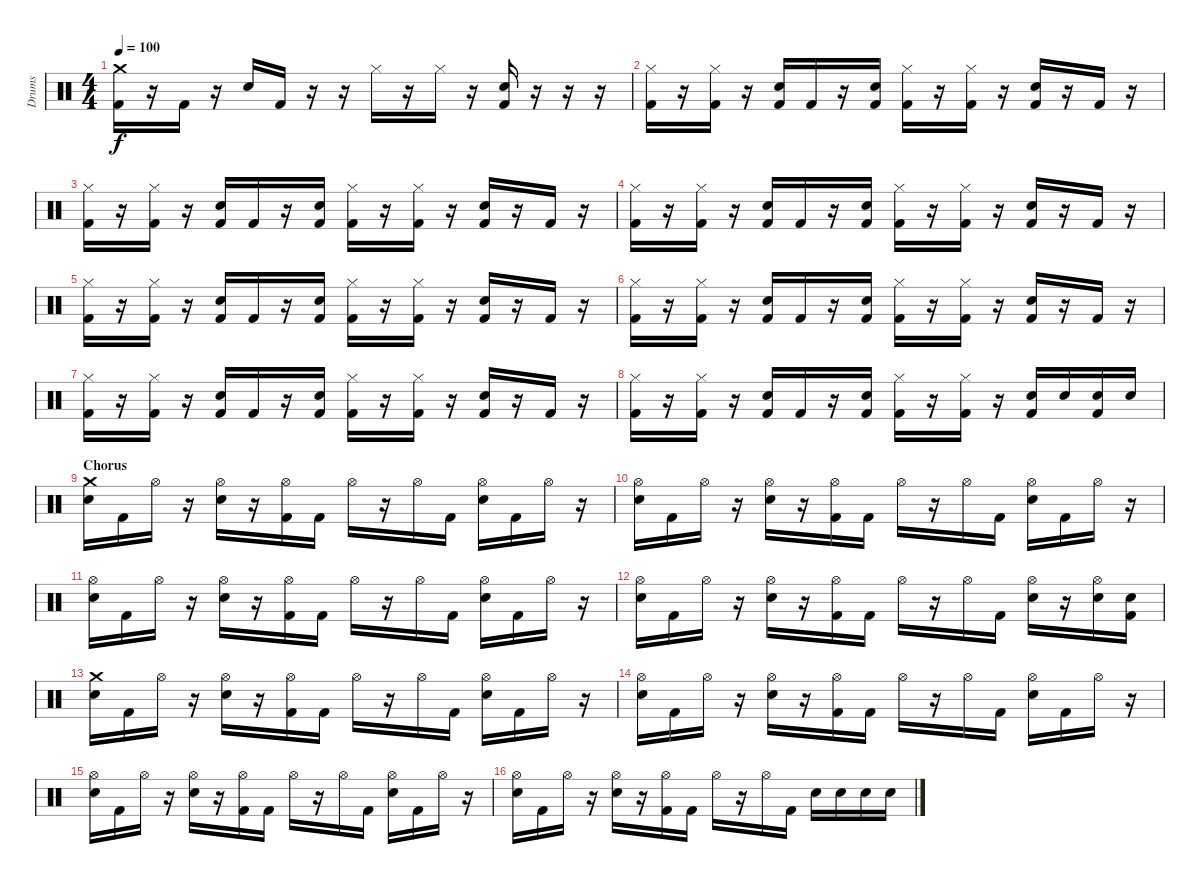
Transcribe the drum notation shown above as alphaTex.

\track ("Drums" "Drums") {instrument percussion}
\staff {score}
\articulation defaults
\ts (4 4)
\tempo 100
\clef neutral
\ks c
("Crash medium (hit)" "Kick (hit) 2").16{dy f} r.16 "Kick (hit) 2".16 r.16 "Snare (hit) 2".16 "Kick (hit) 2".16 r.16 r.16 "Hi-Hat (closed)".16 r.16 "Hi-Hat (closed)".16 r.16 ("Snare (hit) 2" "Kick (hit) 2").16 r.16 r.16 r.16 |
("Hi-Hat (closed)" "Kick (hit) 2").16 r.16 ("Hi-Hat (closed)" "Kick (hit) 2").16 r.16 ("Snare (hit) 2" "Kick (hit) 2").16 "Kick (hit) 2".16 r.16 ("Snare (hit) 2" "Kick (hit) 2").16 ("Hi-Hat (closed)" "Kick (hit) 2").16 r.16 ("Hi-Hat (closed)" "Kick (hit) 2").16 r.16 ("Snare (hit) 2" "Kick (hit) 2").16 r.16 "Kick (hit) 2".16 r.16 |
("Hi-Hat (closed)" "Kick (hit) 2").16 r.16 ("Hi-Hat (closed)" "Kick (hit) 2").16 r.16 ("Snare (hit) 2" "Kick (hit) 2").16 "Kick (hit) 2".16 r.16 ("Snare (hit) 2" "Kick (hit) 2").16 ("Hi-Hat (closed)" "Kick (hit) 2").16 r.16 ("Hi-Hat (closed)" "Kick (hit) 2").16 r.16 ("Snare (hit) 2" "Kick (hit) 2").16 r.16 "Kick (hit) 2".16 r.16 |
("Hi-Hat (closed)" "Kick (hit) 2").16 r.16 ("Hi-Hat (closed)" "Kick (hit) 2").16 r.16 ("Snare (hit) 2" "Kick (hit) 2").16 "Kick (hit) 2".16 r.16 ("Snare (hit) 2" "Kick (hit) 2").16 ("Hi-Hat (closed)" "Kick (hit) 2").16 r.16 ("Hi-Hat (closed)" "Kick (hit) 2").16 r.16 ("Snare (hit) 2" "Kick (hit) 2").16 r.16 "Kick (hit) 2".16 r.16 |
("Hi-Hat (closed)" "Kick (hit) 2").16 r.16 ("Hi-Hat (closed)" "Kick (hit) 2").16 r.16 ("Snare (hit) 2" "Kick (hit) 2").16 "Kick (hit) 2".16 r.16 ("Snare (hit) 2" "Kick (hit) 2").16 ("Hi-Hat (closed)" "Kick (hit) 2").16 r.16 ("Hi-Hat (closed)" "Kick (hit) 2").16 r.16 ("Snare (hit) 2" "Kick (hit) 2").16 r.16 "Kick (hit) 2".16 r.16 |
("Hi-Hat (closed)" "Kick (hit) 2").16 r.16 ("Hi-Hat (closed)" "Kick (hit) 2").16 r.16 ("Snare (hit) 2" "Kick (hit) 2").16 "Kick (hit) 2".16 r.16 ("Snare (hit) 2" "Kick (hit) 2").16 ("Hi-Hat (closed)" "Kick (hit) 2").16 r.16 ("Hi-Hat (closed)" "Kick (hit) 2").16 r.16 ("Snare (hit) 2" "Kick (hit) 2").16 r.16 "Kick (hit) 2".16 r.16 |
("Hi-Hat (closed)" "Kick (hit) 2").16 r.16 ("Hi-Hat (closed)" "Kick (hit) 2").16 r.16 ("Snare (hit) 2" "Kick (hit) 2").16 "Kick (hit) 2".16 r.16 ("Snare (hit) 2" "Kick (hit) 2").16 ("Hi-Hat (closed)" "Kick (hit) 2").16 r.16 ("Hi-Hat (closed)" "Kick (hit) 2").16 r.16 ("Snare (hit) 2" "Kick (hit) 2").16 r.16 "Kick (hit) 2".16 r.16 |
("Hi-Hat (closed)" "Kick (hit) 2").16 r.16 ("Hi-Hat (closed)" "Kick (hit) 2").16 r.16 ("Snare (hit) 2" "Kick (hit) 2").16 "Kick (hit) 2".16 r.16 ("Snare (hit) 2" "Kick (hit) 2").16 ("Hi-Hat (closed)" "Kick (hit) 2").16 r.16 ("Hi-Hat (closed)" "Kick (hit) 2").16 r.16 ("Snare (hit) 2" "Kick (hit) 2").16 "Snare (hit) 2".16 ("Snare (hit) 2" "Kick (hit) 2").16 "Snare (hit) 2".16 |
\section ("" "Chorus")
("Crash medium (hit)" "Snare (hit) 2").16 "Kick (hit) 2".16 "Hi-Hat (open)".16 r.16 ("Hi-Hat (open)" "Snare (hit) 2").16 r.16 ("Hi-Hat (open)" "Kick (hit) 2").16 "Kick (hit) 2".16 "Hi-Hat (open)".16 r.16 "Hi-Hat (open)".16 "Kick (hit) 2".16 ("Hi-Hat (open)" "Snare (hit) 2").16 "Kick (hit) 2".16 "Hi-Hat (open)".16 r.16 |
("Hi-Hat (open)" "Snare (hit) 2").16 "Kick (hit) 2".16 "Hi-Hat (open)".16 r.16 ("Hi-Hat (open)" "Snare (hit) 2").16 r.16 ("Hi-Hat (open)" "Kick (hit) 2").16 "Kick (hit) 2".16 "Hi-Hat (open)".16 r.16 "Hi-Hat (open)".16 "Kick (hit) 2".16 ("Hi-Hat (open)" "Snare (hit) 2").16 "Kick (hit) 2".16 "Hi-Hat (open)".16 r.16 |
("Hi-Hat (open)" "Snare (hit) 2").16 "Kick (hit) 2".16 "Hi-Hat (open)".16 r.16 ("Hi-Hat (open)" "Snare (hit) 2").16 r.16 ("Hi-Hat (open)" "Kick (hit) 2").16 "Kick (hit) 2".16 "Hi-Hat (open)".16 r.16 "Hi-Hat (open)".16 "Kick (hit) 2".16 ("Hi-Hat (open)" "Snare (hit) 2").16 "Kick (hit) 2".16 "Hi-Hat (open)".16 r.16 |
("Hi-Hat (open)" "Snare (hit) 2").16 "Kick (hit) 2".16 "Hi-Hat (open)".16 r.16 ("Hi-Hat (open)" "Snare (hit) 2").16 r.16 ("Hi-Hat (open)" "Kick (hit) 2").16 "Kick (hit) 2".16 "Hi-Hat (open)".16 r.16 "Hi-Hat (open)".16 "Kick (hit) 2".16 ("Hi-Hat (open)" "Snare (hit) 2").16 r.16 ("Hi-Hat (open)" "Snare (hit) 2").16 ("Snare (hit) 2" "Kick (hit) 2").16 |
("Crash medium (hit)" "Snare (hit) 2").16 "Kick (hit) 2".16 "Hi-Hat (open)".16 r.16 ("Hi-Hat (open)" "Snare (hit) 2").16 r.16 ("Hi-Hat (open)" "Kick (hit) 2").16 "Kick (hit) 2".16 "Hi-Hat (open)".16 r.16 "Hi-Hat (open)".16 "Kick (hit) 2".16 ("Hi-Hat (open)" "Snare (hit) 2").16 "Kick (hit) 2".16 "Hi-Hat (open)".16 r.16 |
("Hi-Hat (open)" "Snare (hit) 2").16 "Kick (hit) 2".16 "Hi-Hat (open)".16 r.16 ("Hi-Hat (open)" "Snare (hit) 2").16 r.16 ("Hi-Hat (open)" "Kick (hit) 2").16 "Kick (hit) 2".16 "Hi-Hat (open)".16 r.16 "Hi-Hat (open)".16 "Kick (hit) 2".16 ("Hi-Hat (open)" "Snare (hit) 2").16 "Kick (hit) 2".16 "Hi-Hat (open)".16 r.16 |
("Hi-Hat (open)" "Snare (hit) 2").16 "Kick (hit) 2".16 "Hi-Hat (open)".16 r.16 ("Hi-Hat (open)" "Snare (hit) 2").16 r.16 ("Hi-Hat (open)" "Kick (hit) 2").16 "Kick (hit) 2".16 "Hi-Hat (open)".16 r.16 "Hi-Hat (open)".16 "Kick (hit) 2".16 ("Hi-Hat (open)" "Snare (hit) 2").16 "Kick (hit) 2".16 "Hi-Hat (open)".16 r.16 |
("Hi-Hat (open)" "Snare (hit) 2").16 "Kick (hit) 2".16 "Hi-Hat (open)".16 r.16 ("Hi-Hat (open)" "Snare (hit) 2").16 r.16 ("Hi-Hat (open)" "Kick (hit) 2").16 "Kick (hit) 2".16 "Hi-Hat (open)".16 r.16 "Hi-Hat (open)".16 "Kick (hit) 2".16 "Snare (hit) 2".16 "Snare (hit) 2".16 "Snare (hit) 2".16 "Snare (hit) 2".16
